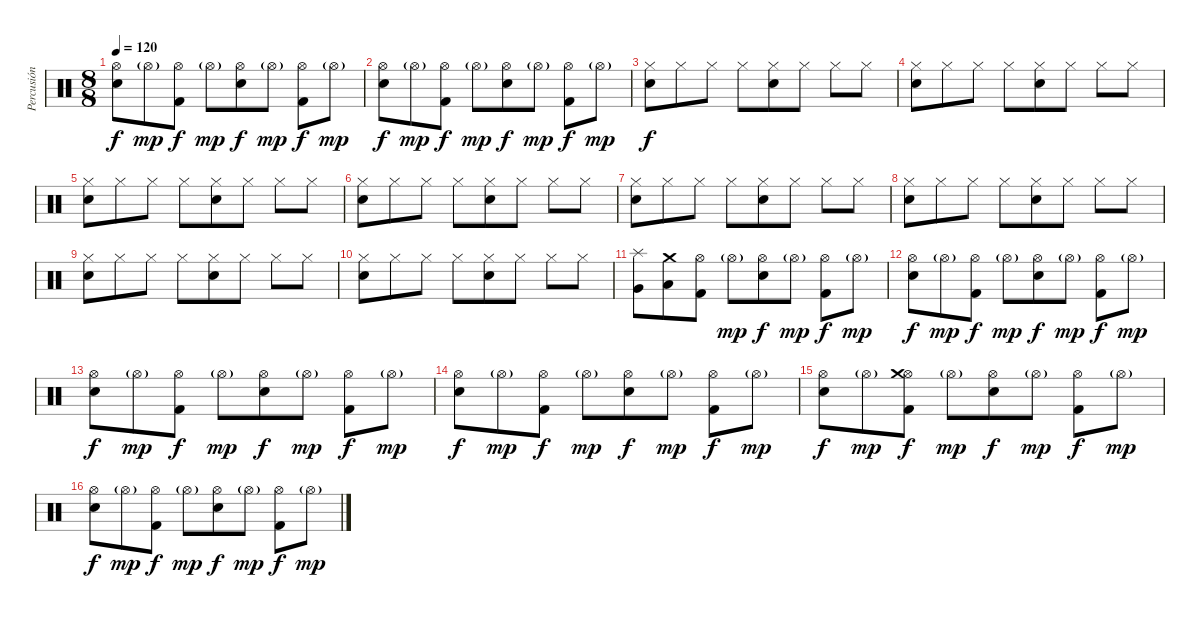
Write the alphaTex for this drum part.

\track ("Percusión" "Percusión") {instrument percussion}
\staff {score}
\articulation defaults
\ts (8 8)
\tempo 120
\clef neutral
\ks c
("Hi-Hat (open)" "Snare (hit) 2").8{dy f} "Hi-Hat (open)"{g}.8{dy mp} ("Hi-Hat (open)" "Kick (hit) 2").8{dy f} "Hi-Hat (open)"{g}.8{dy mp} ("Hi-Hat (open)" "Snare (hit) 2").8{dy f} "Hi-Hat (open)"{g}.8{dy mp} ("Hi-Hat (open)" "Kick (hit) 2").8{dy f} "Hi-Hat (open)"{g}.8{dy mp} |
("Hi-Hat (open)" "Snare (hit) 2").8{dy f} "Hi-Hat (open)"{g}.8{dy mp} ("Hi-Hat (open)" "Kick (hit) 2").8{dy f} "Hi-Hat (open)"{g}.8{dy mp} ("Hi-Hat (open)" "Snare (hit) 2").8{dy f} "Hi-Hat (open)"{g}.8{dy mp} ("Hi-Hat (open)" "Kick (hit) 2").8{dy f} "Hi-Hat (open)"{g}.8{dy mp} |
("Hi-Hat (closed)" "Snare (hit) 2").8{dy f} "Hi-Hat (closed)".8 "Hi-Hat (closed)".8 "Hi-Hat (closed)".8 ("Hi-Hat (closed)" "Snare (hit) 2").8 "Hi-Hat (closed)".8 "Hi-Hat (closed)".8 "Hi-Hat (closed)".8 |
("Hi-Hat (closed)" "Snare (hit) 2").8 "Hi-Hat (closed)".8 "Hi-Hat (closed)".8 "Hi-Hat (closed)".8 ("Hi-Hat (closed)" "Snare (hit) 2").8 "Hi-Hat (closed)".8 "Hi-Hat (closed)".8 "Hi-Hat (closed)".8 |
("Hi-Hat (closed)" "Snare (hit) 2").8 "Hi-Hat (closed)".8 "Hi-Hat (closed)".8 "Hi-Hat (closed)".8 ("Hi-Hat (closed)" "Snare (hit) 2").8 "Hi-Hat (closed)".8 "Hi-Hat (closed)".8 "Hi-Hat (closed)".8 |
("Hi-Hat (closed)" "Snare (hit) 2").8 "Hi-Hat (closed)".8 "Hi-Hat (closed)".8 "Hi-Hat (closed)".8 ("Hi-Hat (closed)" "Snare (hit) 2").8 "Hi-Hat (closed)".8 "Hi-Hat (closed)".8 "Hi-Hat (closed)".8 |
("Hi-Hat (closed)" "Snare (hit) 2").8 "Hi-Hat (closed)".8 "Hi-Hat (closed)".8 "Hi-Hat (closed)".8 ("Hi-Hat (closed)" "Snare (hit) 2").8 "Hi-Hat (closed)".8 "Hi-Hat (closed)".8 "Hi-Hat (closed)".8 |
("Hi-Hat (closed)" "Snare (hit) 2").8 "Hi-Hat (closed)".8 "Hi-Hat (closed)".8 "Hi-Hat (closed)".8 ("Hi-Hat (closed)" "Snare (hit) 2").8 "Hi-Hat (closed)".8 "Hi-Hat (closed)".8 "Hi-Hat (closed)".8 |
("Hi-Hat (closed)" "Snare (hit) 2").8 "Hi-Hat (closed)".8 "Hi-Hat (closed)".8 "Hi-Hat (closed)".8 ("Hi-Hat (closed)" "Snare (hit) 2").8 "Hi-Hat (closed)".8 "Hi-Hat (closed)".8 "Hi-Hat (closed)".8 |
("Hi-Hat (closed)" "Snare (hit) 2").8 "Hi-Hat (closed)".8 "Hi-Hat (closed)".8 "Hi-Hat (closed)".8 ("Hi-Hat (closed)" "Snare (hit) 2").8 "Hi-Hat (closed)".8 "Hi-Hat (closed)".8 "Hi-Hat (closed)".8 |
("Very Low Tom (hit)" "Splash (hit)").8 ("Low Tom (hit)" "Crash medium (hit)").8 ("Hi-Hat (open)" "Kick (hit) 2").8 "Hi-Hat (open)"{g}.8{dy mp} ("Hi-Hat (open)" "Snare (hit) 2").8{dy f} "Hi-Hat (open)"{g}.8{dy mp} ("Hi-Hat (open)" "Kick (hit) 2").8{dy f} "Hi-Hat (open)"{g}.8{dy mp} |
("Hi-Hat (open)" "Snare (hit) 2").8{dy f} "Hi-Hat (open)"{g}.8{dy mp} ("Hi-Hat (open)" "Kick (hit) 2").8{dy f} "Hi-Hat (open)"{g}.8{dy mp} ("Hi-Hat (open)" "Snare (hit) 2").8{dy f} "Hi-Hat (open)"{g}.8{dy mp} ("Hi-Hat (open)" "Kick (hit) 2").8{dy f} "Hi-Hat (open)"{g}.8{dy mp} |
("Hi-Hat (open)" "Snare (hit) 2").8{dy f} "Hi-Hat (open)"{g}.8{dy mp} ("Hi-Hat (open)" "Kick (hit) 2").8{dy f} "Hi-Hat (open)"{g}.8{dy mp} ("Hi-Hat (open)" "Snare (hit) 2").8{dy f} "Hi-Hat (open)"{g}.8{dy mp} ("Hi-Hat (open)" "Kick (hit) 2").8{dy f} "Hi-Hat (open)"{g}.8{dy mp} |
("Hi-Hat (open)" "Snare (hit) 2").8{dy f} "Hi-Hat (open)"{g}.8{dy mp} ("Hi-Hat (open)" "Kick (hit) 2").8{dy f} "Hi-Hat (open)"{g}.8{dy mp} ("Hi-Hat (open)" "Snare (hit) 2").8{dy f} "Hi-Hat (open)"{g}.8{dy mp} ("Hi-Hat (open)" "Kick (hit) 2").8{dy f} "Hi-Hat (open)"{g}.8{dy mp} |
("Hi-Hat (open)" "Snare (hit) 2").8{dy f} "Hi-Hat (open)"{g}.8{dy mp} ("Hi-Hat (open)" "Crash medium (hit)" "Kick (hit) 2").8{dy f} "Hi-Hat (open)"{g}.8{dy mp} ("Hi-Hat (open)" "Snare (hit) 2").8{dy f} "Hi-Hat (open)"{g}.8{dy mp} ("Hi-Hat (open)" "Kick (hit) 2").8{dy f} "Hi-Hat (open)"{g}.8{dy mp} |
("Hi-Hat (open)" "Snare (hit) 2").8{dy f} "Hi-Hat (open)"{g}.8{dy mp} ("Hi-Hat (open)" "Kick (hit) 2").8{dy f} "Hi-Hat (open)"{g}.8{dy mp} ("Hi-Hat (open)" "Snare (hit) 2").8{dy f} "Hi-Hat (open)"{g}.8{dy mp} ("Hi-Hat (open)" "Kick (hit) 2").8{dy f} "Hi-Hat (open)"{g}.8{dy mp}
